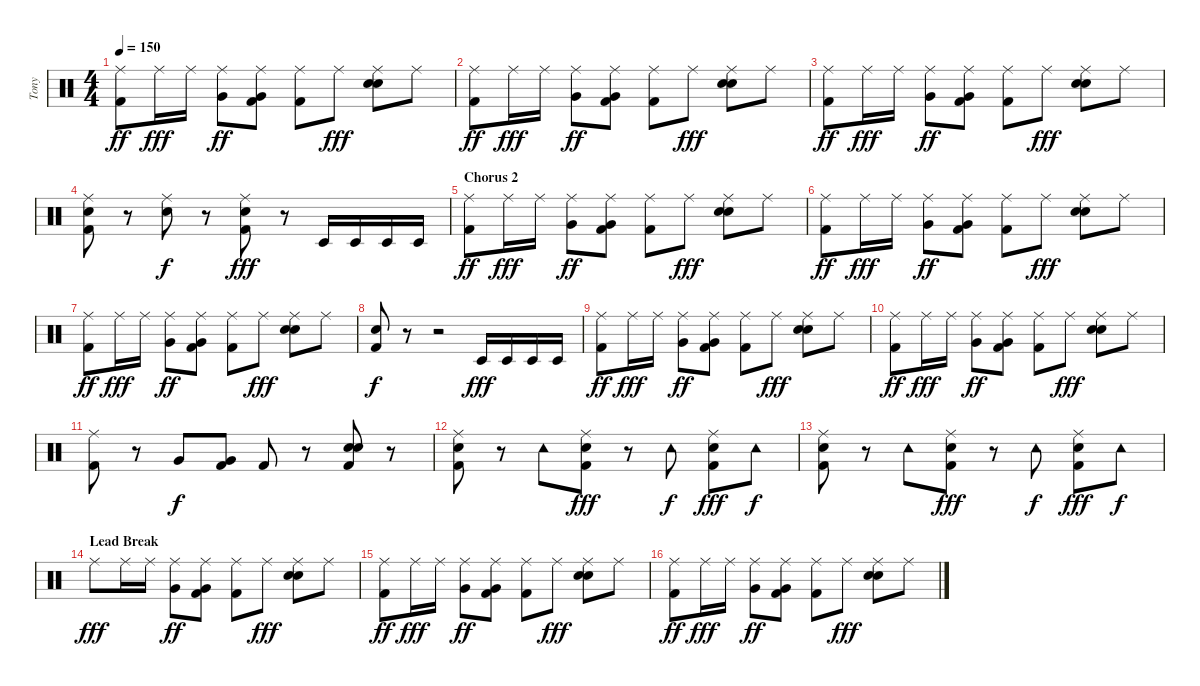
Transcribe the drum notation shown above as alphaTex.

\track ("Tony" "Tony") {instrument percussion}
\staff {score}
\articulation defaults
\ts (4 4)
\tempo 150
\clef neutral
\ks c
("Ride (middle)" "Kick (hit) 2").8{dy ff} "Ride (middle)".16{dy fff} "Ride (middle)".16 ("Ride (middle)" "Very Low Tom (hit)").8{dy ff} ("Ride (middle)" "Very Low Tom (hit)" "Kick (hit) 2").8 ("Ride (middle)" "Kick (hit) 2").8 "Ride (middle)".8{dy fff} ("Ride (middle)" "Electric Snare (hit)" "Snare (hit) 2").8 "Ride (middle)".8 |
("Ride (middle)" "Kick (hit) 2").8{dy ff} "Ride (middle)".16{dy fff} "Ride (middle)".16 ("Ride (middle)" "Very Low Tom (hit)").8{dy ff} ("Ride (middle)" "Very Low Tom (hit)" "Kick (hit) 2").8 ("Ride (middle)" "Kick (hit) 2").8 "Ride (middle)".8{dy fff} ("Ride (middle)" "Electric Snare (hit)" "Snare (hit) 2").8 "Ride (middle)".8 |
("Ride (middle)" "Kick (hit) 2").8{dy ff} "Ride (middle)".16{dy fff} "Ride (middle)".16 ("Ride (middle)" "Very Low Tom (hit)").8{dy ff} ("Ride (middle)" "Very Low Tom (hit)" "Kick (hit) 2").8 ("Ride (middle)" "Kick (hit) 2").8 "Ride (middle)".8{dy fff} ("Ride (middle)" "Electric Snare (hit)" "Snare (hit) 2").8 "Ride (middle)".8 |
("Ride (middle)" "Electric Snare (hit)" "Kick (hit) 2").8 r.8 ("Ride (middle)" "Electric Snare (hit)").8{dy f} r.8 ("Ride (middle)" "Electric Snare (hit)" "Kick (hit) 2").8{dy fff} r.8 "Timbale low (hit)".16 "Timbale low (hit)".16 "Timbale low (hit)".16 "Timbale low (hit)".16 |
\section ("" "Chorus 2")
("Ride (middle)" "Kick (hit) 2").8{dy ff} "Ride (middle)".16{dy fff} "Ride (middle)".16 ("Ride (middle)" "Very Low Tom (hit)").8{dy ff} ("Ride (middle)" "Very Low Tom (hit)" "Kick (hit) 2").8 ("Ride (middle)" "Kick (hit) 2").8 "Ride (middle)".8{dy fff} ("Ride (middle)" "Electric Snare (hit)" "Snare (hit) 2").8 "Ride (middle)".8 |
("Ride (middle)" "Kick (hit) 2").8{dy ff} "Ride (middle)".16{dy fff} "Ride (middle)".16 ("Ride (middle)" "Very Low Tom (hit)").8{dy ff} ("Ride (middle)" "Very Low Tom (hit)" "Kick (hit) 2").8 ("Ride (middle)" "Kick (hit) 2").8 "Ride (middle)".8{dy fff} ("Ride (middle)" "Electric Snare (hit)" "Snare (hit) 2").8 "Ride (middle)".8 |
("Ride (middle)" "Kick (hit) 2").8{dy ff} "Ride (middle)".16{dy fff} "Ride (middle)".16 ("Ride (middle)" "Very Low Tom (hit)").8{dy ff} ("Ride (middle)" "Very Low Tom (hit)" "Kick (hit) 2").8 ("Ride (middle)" "Kick (hit) 2").8 "Ride (middle)".8{dy fff} ("Ride (middle)" "Electric Snare (hit)" "Snare (hit) 2").8 "Ride (middle)".8 |
("Electric Snare (hit)" "Kick (hit) 2").8{dy f} r.8 r.2 "Timbale low (hit)".16{dy fff} "Timbale low (hit)".16 "Timbale low (hit)".16 "Timbale low (hit)".16 |
("Ride (middle)" "Kick (hit) 2").8{dy ff} "Ride (middle)".16{dy fff} "Ride (middle)".16 ("Ride (middle)" "Very Low Tom (hit)").8{dy ff} ("Ride (middle)" "Very Low Tom (hit)" "Kick (hit) 2").8 ("Ride (middle)" "Kick (hit) 2").8 "Ride (middle)".8{dy fff} ("Ride (middle)" "Electric Snare (hit)" "Snare (hit) 2").8 "Ride (middle)".8 |
("Ride (middle)" "Kick (hit) 2").8{dy ff} "Ride (middle)".16{dy fff} "Ride (middle)".16 ("Ride (middle)" "Very Low Tom (hit)").8{dy ff} ("Ride (middle)" "Very Low Tom (hit)" "Kick (hit) 2").8 ("Ride (middle)" "Kick (hit) 2").8 "Ride (middle)".8{dy fff} ("Ride (middle)" "Electric Snare (hit)" "Snare (hit) 2").8 "Ride (middle)".8 |
("Ride (middle)" "Kick (hit) 2").8 r.8 "Very Low Tom (hit)".8{dy f} ("Very Low Tom (hit)" "Kick (hit) 2").8 "Kick (hit) 2".8 r.8 ("Electric Snare (hit)" "Snare (hit) 2" "Kick (hit) 2").8 r.8 |
("Ride (middle)" "Electric Snare (hit)" "Kick (hit) 2").8 r.8 "Tambourine (hit)".8 ("Ride (middle)" "Electric Snare (hit)" "Kick (hit) 2").8{dy fff} r.8 "Tambourine (hit)".8{dy f} ("Ride (middle)" "Electric Snare (hit)" "Kick (hit) 2").8{dy fff} "Tambourine (hit)".8{dy f} |
("Ride (middle)" "Electric Snare (hit)" "Kick (hit) 2").8 r.8 "Tambourine (hit)".8 ("Ride (middle)" "Electric Snare (hit)" "Kick (hit) 2").8{dy fff} r.8 "Tambourine (hit)".8{dy f} ("Ride (middle)" "Electric Snare (hit)" "Kick (hit) 2").8{dy fff} "Tambourine (hit)".8{dy f} |
\section ("" "Lead Break")
"Ride (middle)".8{dy fff} "Ride (middle)".16 "Ride (middle)".16 ("Ride (middle)" "Very Low Tom (hit)").8{dy ff} ("Ride (middle)" "Very Low Tom (hit)" "Kick (hit) 2").8 ("Ride (middle)" "Kick (hit) 2").8 "Ride (middle)".8{dy fff} ("Ride (middle)" "Electric Snare (hit)" "Snare (hit) 2").8 "Ride (middle)".8 |
("Ride (middle)" "Kick (hit) 2").8{dy ff} "Ride (middle)".16{dy fff} "Ride (middle)".16 ("Ride (middle)" "Very Low Tom (hit)").8{dy ff} ("Ride (middle)" "Very Low Tom (hit)" "Kick (hit) 2").8 ("Ride (middle)" "Kick (hit) 2").8 "Ride (middle)".8{dy fff} ("Ride (middle)" "Electric Snare (hit)" "Snare (hit) 2").8 "Ride (middle)".8 |
("Ride (middle)" "Kick (hit) 2").8{dy ff} "Ride (middle)".16{dy fff} "Ride (middle)".16 ("Ride (middle)" "Very Low Tom (hit)").8{dy ff} ("Ride (middle)" "Very Low Tom (hit)" "Kick (hit) 2").8 ("Ride (middle)" "Kick (hit) 2").8 "Ride (middle)".8{dy fff} ("Ride (middle)" "Electric Snare (hit)" "Snare (hit) 2").8 "Ride (middle)".8
